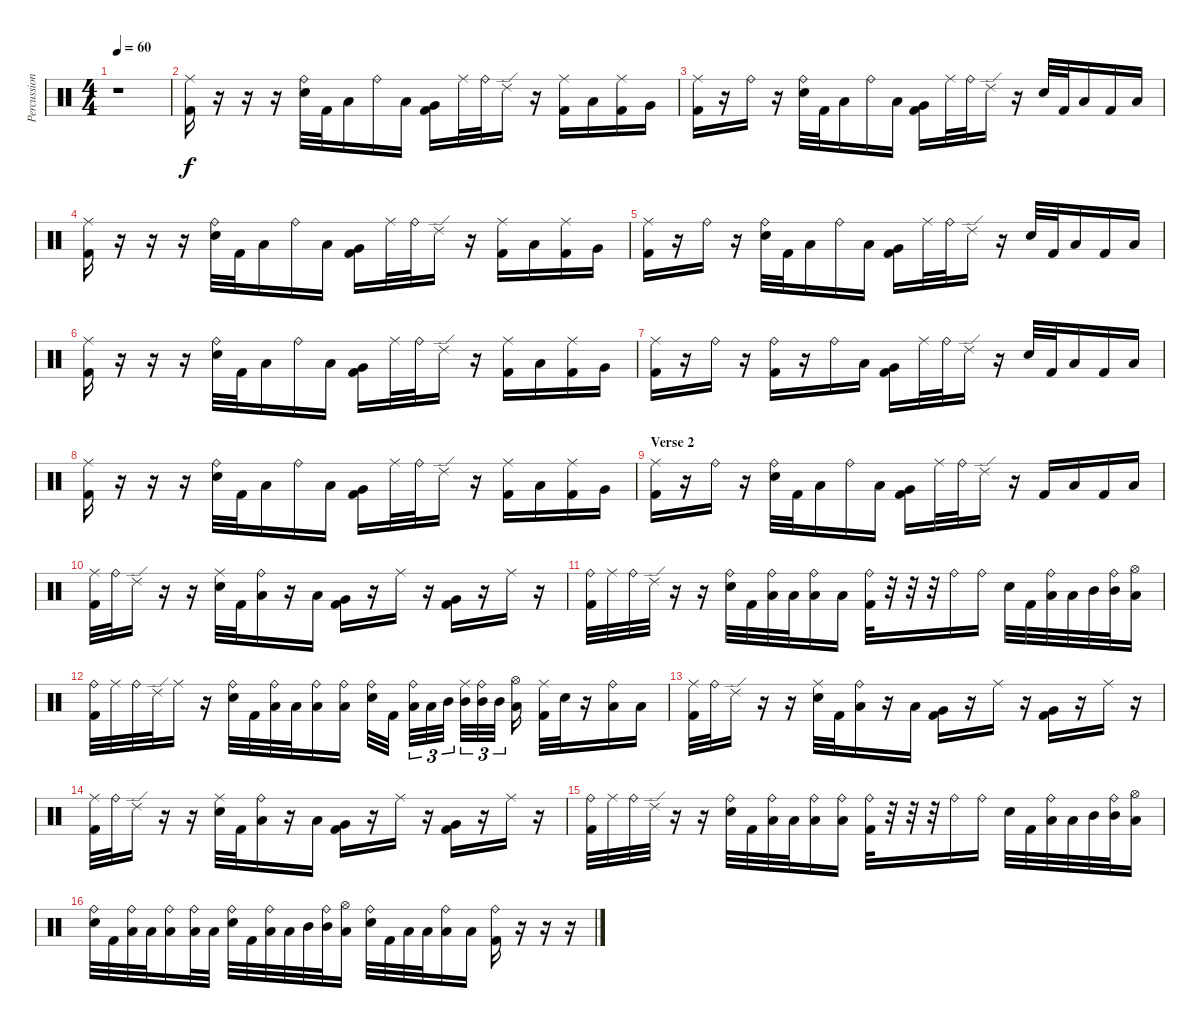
\track ("Percussion" "Percussion") {instrument percussion}
\staff {score}
\articulation defaults
\ts (4 4)
\tempo 60
\clef neutral
\ks c
r.1{dy f} |
("Ride (middle)" "Kick (hit) 2").16 r.16 r.16 r.16 ("Ride (bell)" "Electric Snare (hit)").32 "Kick (hit) 2".32 "Low Tom (hit)".16 "Ride (bell)".16 "Low Tom (hit)".16 ("Very Low Tom (hit)" "Kick (hit) 2").16 "Ride (middle)".32 "Ride (bell)".32 "Ride (edge) 2".16 r.16 ("Ride (middle)" "Kick (hit) 2").16 "Low Tom (hit)".16 ("Ride (middle)" "Kick (hit) 2").16 "Very Low Tom (hit)".16 |
("Ride (middle)" "Kick (hit) 2").16 r.16 "Ride (bell)".16 r.16 ("Ride (bell)" "Electric Snare (hit)").32 "Kick (hit) 2".32 "Low Tom (hit)".16 "Ride (bell)".16 "Low Tom (hit)".16 ("Very Low Tom (hit)" "Kick (hit) 2").16 "Ride (middle)".32 "Ride (bell)".32 "Ride (edge) 2".16 r.16 "Electric Snare (hit)".32 "Kick (hit) 2".32 "Low Tom (hit)".16 "Kick (hit) 2".16 "Low Tom (hit)".16 |
("Ride (middle)" "Kick (hit) 2").16 r.16 r.16 r.16 ("Ride (bell)" "Electric Snare (hit)").32 "Kick (hit) 2".32 "Low Tom (hit)".16 "Ride (bell)".16 "Low Tom (hit)".16 ("Very Low Tom (hit)" "Kick (hit) 2").16 "Ride (middle)".32 "Ride (bell)".32 "Ride (edge) 2".16 r.16 ("Ride (middle)" "Kick (hit) 2").16 "Low Tom (hit)".16 ("Ride (middle)" "Kick (hit) 2").16 "Very Low Tom (hit)".16 |
("Ride (middle)" "Kick (hit) 2").16 r.16 "Ride (bell)".16 r.16 ("Ride (bell)" "Electric Snare (hit)").32 "Kick (hit) 2".32 "Low Tom (hit)".16 "Ride (bell)".16 "Low Tom (hit)".16 ("Very Low Tom (hit)" "Kick (hit) 2").16 "Ride (middle)".32 "Ride (bell)".32 "Ride (edge) 2".16 r.16 "Electric Snare (hit)".32 "Kick (hit) 2".32 "Low Tom (hit)".16 "Kick (hit) 2".16 "Low Tom (hit)".16 |
("Ride (middle)" "Kick (hit) 2").16 r.16 r.16 r.16 ("Ride (bell)" "Electric Snare (hit)").32 "Kick (hit) 2".32 "Low Tom (hit)".16 "Ride (bell)".16 "Low Tom (hit)".16 ("Very Low Tom (hit)" "Kick (hit) 2").16 "Ride (middle)".32 "Ride (bell)".32 "Ride (edge) 2".16 r.16 ("Ride (middle)" "Kick (hit) 2").16 "Low Tom (hit)".16 ("Ride (middle)" "Kick (hit) 2").16 "Very Low Tom (hit)".16 |
("Ride (middle)" "Kick (hit) 2").16 r.16 "Ride (bell)".16 r.16 ("Ride (bell)" "Kick (hit) 2").16 r.16 "Ride (bell)".16 "Low Tom (hit)".16 ("Very Low Tom (hit)" "Kick (hit) 2").16 "Ride (middle)".32 "Ride (bell)".32 "Ride (edge) 2".16 r.16 "Electric Snare (hit)".32 "Kick (hit) 2".32 "Low Tom (hit)".16 "Kick (hit) 2".16 "Low Tom (hit)".16 |
("Ride (middle)" "Kick (hit) 2").16 r.16 r.16 r.16 ("Ride (bell)" "Electric Snare (hit)").32 "Kick (hit) 2".32 "Low Tom (hit)".16 "Ride (bell)".16 "Low Tom (hit)".16 ("Very Low Tom (hit)" "Kick (hit) 2").16 "Ride (middle)".32 "Ride (bell)".32 "Ride (edge) 2".16 r.16 ("Ride (middle)" "Kick (hit) 2").16 "Low Tom (hit)".16 ("Ride (middle)" "Kick (hit) 2").16 "Very Low Tom (hit)".16 |
\section ("" "Verse 2")
("Ride (middle)" "Kick (hit) 2").16 r.16 "Ride (bell)".16 r.16 ("Ride (bell)" "Electric Snare (hit)").32 "Kick (hit) 2".32 "Low Tom (hit)".16 "Ride (bell)".16 "Low Tom (hit)".16 ("Very Low Tom (hit)" "Kick (hit) 2").16 "Ride (middle)".32 "Ride (bell)".32 "Ride (edge) 2".16 r.16 "Kick (hit) 2".16 "Low Tom (hit)".16 "Kick (hit) 2".16 "Low Tom (hit)".16 |
("Ride (middle)" "Kick (hit) 2").32 "Ride (bell)".32 "Ride (edge) 2".16 r.16 r.16 ("Ride (middle)" "Electric Snare (hit)").32 "Kick (hit) 2".32 ("Ride (bell)" "Low Tom (hit)").16 r.16 "Low Tom (hit)".16 ("Very Low Tom (hit)" "Kick (hit) 2").16 r.16 "Ride (middle)".16 r.16 ("Very Low Tom (hit)" "Kick (hit) 2").16 r.16 "Ride (middle)".16 r.16 |
("Ride (bell)" "Kick (hit) 2").32 "Ride (middle)".32 "Ride (bell)".32 "Ride (edge) 2".32 r.16 r.16 ("Ride (bell)" "Electric Snare (hit)").32 "Kick (hit) 2".32 ("Ride (bell)" "Low Tom (hit)").32 "Low Tom (hit)".32 ("Ride (bell)" "Low Tom (hit)").16 "Low Tom (hit)".16 ("Ride (bell)" "Kick (hit) 2").32 r.32 r.32 r.32 "Ride (bell)".16 "Ride (bell)".16 "Electric Snare (hit)".32 "Kick (hit) 2".32 ("Ride (bell)" "Low Tom (hit)").32 "Low Tom (hit)".32 "Mid Tom (hit)".32 ("Ride (bell)" "Mid Tom (hit)").32 ("Hi-Hat (open)" "Low Tom (hit)").16 |
("Ride (bell)" "Kick (hit) 2").32 "Ride (middle)".32 "Ride (bell)".32 "Ride (edge) 2".32 "Ride (middle)".16 r.16 ("Ride (bell)" "Electric Snare (hit)").32 "Kick (hit) 2".32 ("Ride (bell)" "Low Tom (hit)").32 "Low Tom (hit)".32 ("Ride (bell)" "Low Tom (hit)").16 ("Ride (bell)" "Low Tom (hit)").16 ("Ride (bell)" "Electric Snare (hit)").32 "Kick (hit) 2".32 ("Ride (bell)" "Low Tom (hit)").32{tu (3 2)} "Low Tom (hit)".32{tu (3 2)} "Mid Tom (hit)".32{tu (3 2)} ("Ride (middle)" "Mid Tom (hit)").32{tu (3 2)} ("Ride (bell)" "Mid Tom (hit)").32{tu (3 2)} "Mid Tom (hit)".32{tu (3 2)} ("Hi-Hat (open)" "Low Tom (hit)").16 ("Ride (middle)" "Kick (hit) 2").32 "Electric Snare (hit)".32 r.16 ("Ride (bell)" "Low Tom (hit)").16 "Low Tom (hit)".16 |
("Ride (middle)" "Kick (hit) 2").32 "Ride (bell)".32 "Ride (edge) 2".16 r.16 r.16 ("Ride (middle)" "Electric Snare (hit)").32 "Kick (hit) 2".32 ("Ride (bell)" "Low Tom (hit)").16 r.16 "Low Tom (hit)".16 ("Very Low Tom (hit)" "Kick (hit) 2").16 r.16 "Ride (middle)".16 r.16 ("Very Low Tom (hit)" "Kick (hit) 2").16 r.16 "Ride (middle)".16 r.16 |
("Ride (middle)" "Kick (hit) 2").32 "Ride (bell)".32 "Ride (edge) 2".16 r.16 r.16 ("Ride (middle)" "Electric Snare (hit)").32 "Kick (hit) 2".32 ("Ride (bell)" "Low Tom (hit)").16 r.16 "Low Tom (hit)".16 ("Very Low Tom (hit)" "Kick (hit) 2").16 r.16 "Ride (middle)".16 r.16 ("Very Low Tom (hit)" "Kick (hit) 2").16 r.16 "Ride (middle)".16 r.16 |
("Ride (bell)" "Kick (hit) 2").32 "Ride (middle)".32 "Ride (bell)".32 "Ride (edge) 2".32 r.16 r.16 ("Ride (bell)" "Electric Snare (hit)").32 "Kick (hit) 2".32 ("Ride (bell)" "Low Tom (hit)").32 "Low Tom (hit)".32 ("Ride (bell)" "Low Tom (hit)").16 ("Ride (bell)" "Low Tom (hit)").16 ("Ride (bell)" "Kick (hit) 2").32 r.32 r.32 r.32 "Ride (bell)".16 "Ride (bell)".16 "Electric Snare (hit)".32 "Kick (hit) 2".32 ("Ride (bell)" "Low Tom (hit)").32 "Low Tom (hit)".32 "Mid Tom (hit)".32 ("Ride (bell)" "Mid Tom (hit)").32 ("Hi-Hat (open)" "Low Tom (hit)").16 |
("Ride (bell)" "Electric Snare (hit)").32 "Kick (hit) 2".32 ("Ride (bell)" "Low Tom (hit)").32 "Low Tom (hit)".32 ("Ride (bell)" "Low Tom (hit)").16 ("Ride (bell)" "Low Tom (hit)").32 "Low Tom (hit)".32 ("Ride (bell)" "Electric Snare (hit)").32 "Kick (hit) 2".32 ("Ride (bell)" "Low Tom (hit)").32 "Low Tom (hit)".32 "Mid Tom (hit)".32 ("Ride (bell)" "Mid Tom (hit)").32 ("Hi-Hat (open)" "Low Tom (hit)").16 ("Ride (bell)" "Electric Snare (hit)").32 "Kick (hit) 2".32 "Low Tom (hit)".32 "Low Tom (hit)".32 ("Ride (bell)" "Low Tom (hit)").16 "Low Tom (hit)".16 ("Ride (bell)" "Kick (hit) 2").16 r.16 r.16 r.16
